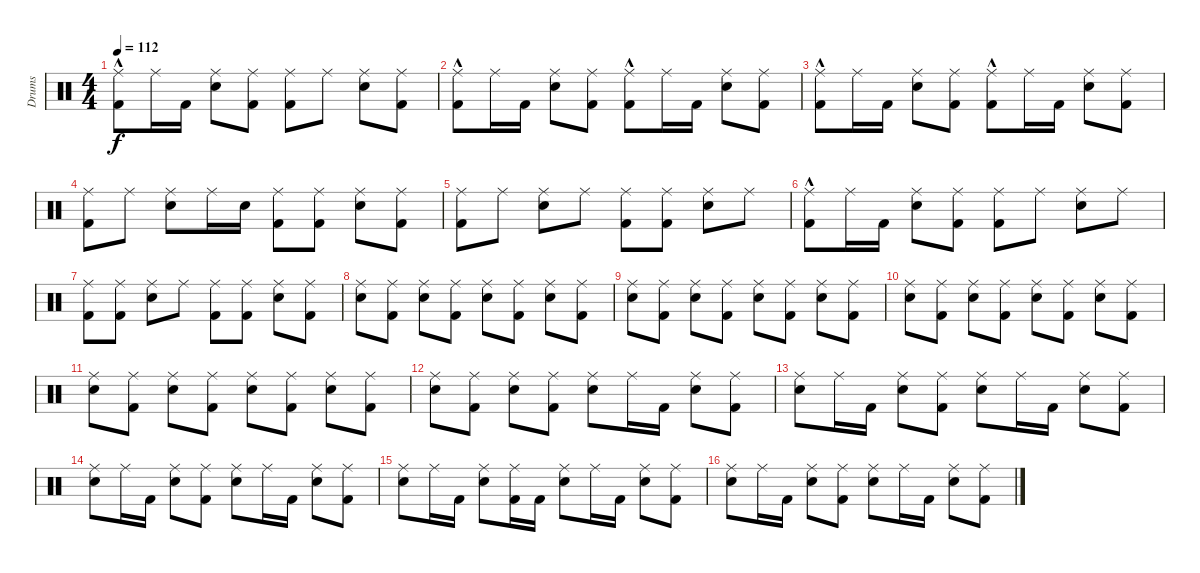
\track ("Drums" "Drums") {instrument percussion}
\staff {score}
\articulation defaults
\ts (4 4)
\tempo 112
\clef neutral
\ks c
("Ride (middle)" "Kick (hit) 2"{hac}).8{dy f} "Ride (middle)".16 "Kick (hit) 2".16 ("Ride (middle)" "Electric Snare (hit)").8 ("Ride (middle)" "Kick (hit) 2").8 ("Ride (middle)" "Kick (hit) 2").8 "Ride (middle)".8 ("Ride (middle)" "Electric Snare (hit)").8 ("Ride (middle)" "Kick (hit) 2").8 |
("Ride (middle)" "Kick (hit) 2"{hac}).8 "Ride (middle)".16 "Kick (hit) 2".16 ("Ride (middle)" "Electric Snare (hit)").8 ("Ride (middle)" "Kick (hit) 2").8 ("Ride (middle)" "Kick (hit) 2"{hac}).8 "Ride (middle)".16 "Kick (hit) 2".16 ("Ride (middle)" "Electric Snare (hit)").8 ("Ride (middle)" "Kick (hit) 2").8 |
("Ride (middle)" "Kick (hit) 2"{hac}).8 "Ride (middle)".16 "Kick (hit) 2".16 ("Ride (middle)" "Electric Snare (hit)").8 ("Ride (middle)" "Kick (hit) 2").8 ("Ride (middle)" "Kick (hit) 2"{hac}).8 "Ride (middle)".16 "Kick (hit) 2".16 ("Ride (middle)" "Electric Snare (hit)").8 ("Ride (middle)" "Kick (hit) 2").8 |
("Ride (middle)" "Kick (hit) 2").8 "Ride (middle)".8 ("Ride (middle)" "Electric Snare (hit)").8 "Ride (middle)".16 "Electric Snare (hit)".16 ("Ride (middle)" "Kick (hit) 2").8 ("Ride (middle)" "Kick (hit) 2").8 ("Ride (middle)" "Electric Snare (hit)").8 ("Ride (middle)" "Kick (hit) 2").8 |
("Ride (middle)" "Kick (hit) 2").8 "Ride (middle)".8 ("Ride (middle)" "Electric Snare (hit)").8 "Ride (middle)".8 ("Ride (middle)" "Kick (hit) 2").8 ("Ride (middle)" "Kick (hit) 2").8 ("Ride (middle)" "Electric Snare (hit)").8 "Ride (middle)".8 |
("Ride (middle)" "Kick (hit) 2"{hac}).8 "Ride (middle)".16 "Kick (hit) 2".16 ("Ride (middle)" "Electric Snare (hit)").8 ("Ride (middle)" "Kick (hit) 2").8 ("Ride (middle)" "Kick (hit) 2").8 "Ride (middle)".8 ("Ride (middle)" "Electric Snare (hit)").8 "Ride (middle)".8 |
("Ride (middle)" "Kick (hit) 2").8 ("Ride (middle)" "Kick (hit) 2").8 ("Ride (middle)" "Electric Snare (hit)").8 "Ride (middle)".8 ("Ride (middle)" "Kick (hit) 2").8 ("Ride (middle)" "Kick (hit) 2").8 ("Ride (middle)" "Electric Snare (hit)").8 ("Ride (middle)" "Kick (hit) 2").8 |
("Ride (middle)" "Electric Snare (hit)").8 ("Ride (middle)" "Kick (hit) 2").8 ("Ride (middle)" "Electric Snare (hit)").8 ("Ride (middle)" "Kick (hit) 2").8 ("Ride (middle)" "Electric Snare (hit)").8 ("Ride (middle)" "Kick (hit) 2").8 ("Ride (middle)" "Electric Snare (hit)").8 ("Ride (middle)" "Kick (hit) 2").8 |
("Ride (middle)" "Electric Snare (hit)").8 ("Ride (middle)" "Kick (hit) 2").8 ("Ride (middle)" "Electric Snare (hit)").8 ("Ride (middle)" "Kick (hit) 2").8 ("Ride (middle)" "Electric Snare (hit)").8 ("Ride (middle)" "Kick (hit) 2").8 ("Ride (middle)" "Electric Snare (hit)").8 ("Ride (middle)" "Kick (hit) 2").8 |
("Ride (middle)" "Electric Snare (hit)").8 ("Ride (middle)" "Kick (hit) 2").8 ("Ride (middle)" "Electric Snare (hit)").8 ("Ride (middle)" "Kick (hit) 2").8 ("Ride (middle)" "Electric Snare (hit)").8 ("Ride (middle)" "Kick (hit) 2").8 ("Ride (middle)" "Electric Snare (hit)").8 ("Ride (middle)" "Kick (hit) 2").8 |
("Ride (middle)" "Electric Snare (hit)").8 ("Ride (middle)" "Kick (hit) 2").8 ("Ride (middle)" "Electric Snare (hit)").8 ("Ride (middle)" "Kick (hit) 2").8 ("Ride (middle)" "Electric Snare (hit)").8 ("Ride (middle)" "Kick (hit) 2").8 ("Ride (middle)" "Electric Snare (hit)").8 ("Ride (middle)" "Kick (hit) 2").8 |
("Ride (middle)" "Electric Snare (hit)").8 ("Ride (middle)" "Kick (hit) 2").8 ("Ride (middle)" "Electric Snare (hit)").8 ("Ride (middle)" "Kick (hit) 2").8 ("Ride (middle)" "Electric Snare (hit)").8 "Ride (middle)".16 "Kick (hit) 2".16 ("Ride (middle)" "Electric Snare (hit)").8 ("Ride (middle)" "Kick (hit) 2").8 |
("Ride (middle)" "Electric Snare (hit)").8 "Ride (middle)".16 "Kick (hit) 2".16 ("Ride (middle)" "Electric Snare (hit)").8 ("Ride (middle)" "Kick (hit) 2").8 ("Ride (middle)" "Electric Snare (hit)").8 "Ride (middle)".16 "Kick (hit) 2".16 ("Ride (middle)" "Electric Snare (hit)").8 ("Ride (middle)" "Kick (hit) 2").8 |
("Ride (middle)" "Electric Snare (hit)").8 "Ride (middle)".16 "Kick (hit) 2".16 ("Ride (middle)" "Electric Snare (hit)").8 ("Ride (middle)" "Kick (hit) 2").8 ("Ride (middle)" "Electric Snare (hit)").8 "Ride (middle)".16 "Kick (hit) 2".16 ("Ride (middle)" "Electric Snare (hit)").8 ("Ride (middle)" "Kick (hit) 2").8 |
("Ride (middle)" "Electric Snare (hit)").8 "Ride (middle)".16 "Kick (hit) 2".16 ("Ride (middle)" "Electric Snare (hit)").8 ("Ride (middle)" "Kick (hit) 2").16 "Kick (hit) 2".16 ("Ride (middle)" "Electric Snare (hit)").8 "Ride (middle)".16 "Kick (hit) 2".16 ("Ride (middle)" "Electric Snare (hit)").8 ("Ride (middle)" "Kick (hit) 2").8 |
("Ride (middle)" "Electric Snare (hit)").8 "Ride (middle)".16 "Kick (hit) 2".16 ("Ride (middle)" "Electric Snare (hit)").8 ("Ride (middle)" "Kick (hit) 2").8 ("Ride (middle)" "Electric Snare (hit)").8 "Ride (middle)".16 "Kick (hit) 2".16 ("Ride (middle)" "Electric Snare (hit)").8 ("Ride (middle)" "Kick (hit) 2").8
